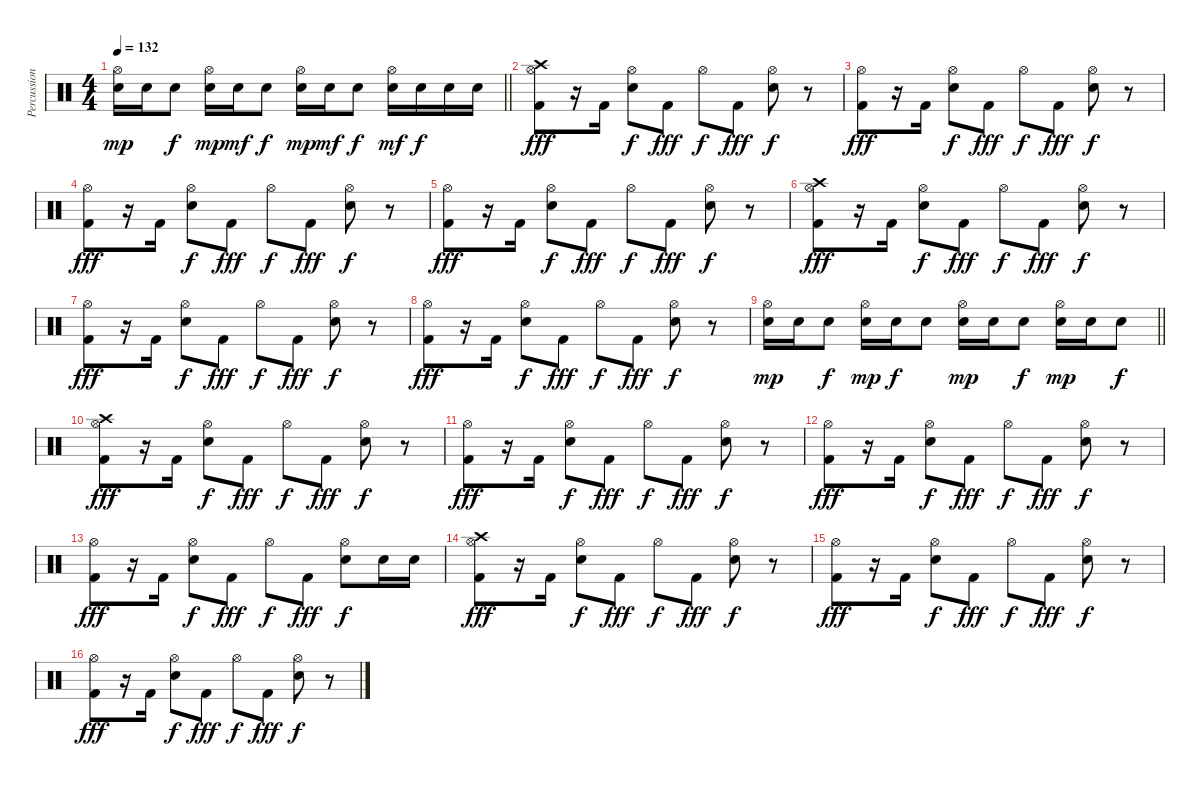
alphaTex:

\track ("Percussion" "Percussion") {instrument percussion}
\staff {score}
\articulation defaults
\ts (4 4)
\tempo 132
\clef neutral
\barLineRight lightlight
\ks c
("Electric Snare (hit)" "Hi-Hat (open)").16{dy mp} "Electric Snare (hit)".16 "Electric Snare (hit)".8{dy f} ("Electric Snare (hit)" "Hi-Hat (open)").16{dy mp} "Electric Snare (hit)".16{dy mf} "Electric Snare (hit)".8{dy f} ("Electric Snare (hit)" "Hi-Hat (open)").16{dy mp} "Electric Snare (hit)".16{dy mf} "Electric Snare (hit)".8{dy f} ("Electric Snare (hit)" "Hi-Hat (open)").16{dy mf} "Electric Snare (hit)".16{dy f} "Electric Snare (hit)".16 "Electric Snare (hit)".16 |
\section ("" "")
("Kick (hit) 2" "Hi-Hat (open)" "Crash high (hit)").8{dy fff} r.16 "Kick (hit) 2".16 ("Electric Snare (hit)" "Hi-Hat (open)").8{dy f} "Kick (hit) 2".8{dy fff} "Hi-Hat (open)".8{dy f} "Kick (hit) 2".8{dy fff} ("Electric Snare (hit)" "Hi-Hat (open)").8{dy f} r.8 |
("Kick (hit) 2" "Hi-Hat (open)").8{dy fff} r.16 "Kick (hit) 2".16 ("Electric Snare (hit)" "Hi-Hat (open)").8{dy f} "Kick (hit) 2".8{dy fff} "Hi-Hat (open)".8{dy f} "Kick (hit) 2".8{dy fff} ("Electric Snare (hit)" "Hi-Hat (open)").8{dy f} r.8 |
("Kick (hit) 2" "Hi-Hat (open)").8{dy fff} r.16 "Kick (hit) 2".16 ("Electric Snare (hit)" "Hi-Hat (open)").8{dy f} "Kick (hit) 2".8{dy fff} "Hi-Hat (open)".8{dy f} "Kick (hit) 2".8{dy fff} ("Electric Snare (hit)" "Hi-Hat (open)").8{dy f} r.8 |
("Kick (hit) 2" "Hi-Hat (open)").8{dy fff} r.16 "Kick (hit) 2".16 ("Electric Snare (hit)" "Hi-Hat (open)").8{dy f} "Kick (hit) 2".8{dy fff} "Hi-Hat (open)".8{dy f} "Kick (hit) 2".8{dy fff} ("Electric Snare (hit)" "Hi-Hat (open)").8{dy f} r.8 |
("Kick (hit) 2" "Hi-Hat (open)" "Crash high (hit)").8{dy fff} r.16 "Kick (hit) 2".16 ("Electric Snare (hit)" "Hi-Hat (open)").8{dy f} "Kick (hit) 2".8{dy fff} "Hi-Hat (open)".8{dy f} "Kick (hit) 2".8{dy fff} ("Electric Snare (hit)" "Hi-Hat (open)").8{dy f} r.8 |
("Kick (hit) 2" "Hi-Hat (open)").8{dy fff} r.16 "Kick (hit) 2".16 ("Electric Snare (hit)" "Hi-Hat (open)").8{dy f} "Kick (hit) 2".8{dy fff} "Hi-Hat (open)".8{dy f} "Kick (hit) 2".8{dy fff} ("Electric Snare (hit)" "Hi-Hat (open)").8{dy f} r.8 |
("Kick (hit) 2" "Hi-Hat (open)").8{dy fff} r.16 "Kick (hit) 2".16 ("Electric Snare (hit)" "Hi-Hat (open)").8{dy f} "Kick (hit) 2".8{dy fff} "Hi-Hat (open)".8{dy f} "Kick (hit) 2".8{dy fff} ("Electric Snare (hit)" "Hi-Hat (open)").8{dy f} r.8 |
\barLineRight lightlight
("Electric Snare (hit)" "Hi-Hat (open)").16{dy mp} "Electric Snare (hit)".16 "Electric Snare (hit)".8{dy f} ("Electric Snare (hit)" "Hi-Hat (open)").16{dy mp} "Electric Snare (hit)".16{dy f} "Electric Snare (hit)".8 ("Electric Snare (hit)" "Hi-Hat (open)").16{dy mp} "Electric Snare (hit)".16 "Electric Snare (hit)".8{dy f} ("Electric Snare (hit)" "Hi-Hat (open)").16{dy mp} "Electric Snare (hit)".16 "Electric Snare (hit)".8{dy f} |
\section ("" "")
("Kick (hit) 2" "Hi-Hat (open)" "Crash high (hit)").8{dy fff} r.16 "Kick (hit) 2".16 ("Electric Snare (hit)" "Hi-Hat (open)").8{dy f} "Kick (hit) 2".8{dy fff} "Hi-Hat (open)".8{dy f} "Kick (hit) 2".8{dy fff} ("Electric Snare (hit)" "Hi-Hat (open)").8{dy f} r.8 |
("Kick (hit) 2" "Hi-Hat (open)").8{dy fff} r.16 "Kick (hit) 2".16 ("Electric Snare (hit)" "Hi-Hat (open)").8{dy f} "Kick (hit) 2".8{dy fff} "Hi-Hat (open)".8{dy f} "Kick (hit) 2".8{dy fff} ("Electric Snare (hit)" "Hi-Hat (open)").8{dy f} r.8 |
("Kick (hit) 2" "Hi-Hat (open)").8{dy fff} r.16 "Kick (hit) 2".16 ("Electric Snare (hit)" "Hi-Hat (open)").8{dy f} "Kick (hit) 2".8{dy fff} "Hi-Hat (open)".8{dy f} "Kick (hit) 2".8{dy fff} ("Electric Snare (hit)" "Hi-Hat (open)").8{dy f} r.8 |
("Kick (hit) 2" "Hi-Hat (open)").8{dy fff} r.16 "Kick (hit) 2".16 ("Electric Snare (hit)" "Hi-Hat (open)").8{dy f} "Kick (hit) 2".8{dy fff} "Hi-Hat (open)".8{dy f} "Kick (hit) 2".8{dy fff} ("Electric Snare (hit)" "Hi-Hat (open)").8{dy f} "Electric Snare (hit)".16 "Electric Snare (hit)".16 |
("Kick (hit) 2" "Hi-Hat (open)" "Crash high (hit)").8{dy fff} r.16 "Kick (hit) 2".16 ("Electric Snare (hit)" "Hi-Hat (open)").8{dy f} "Kick (hit) 2".8{dy fff} "Hi-Hat (open)".8{dy f} "Kick (hit) 2".8{dy fff} ("Electric Snare (hit)" "Hi-Hat (open)").8{dy f} r.8 |
("Kick (hit) 2" "Hi-Hat (open)").8{dy fff} r.16 "Kick (hit) 2".16 ("Electric Snare (hit)" "Hi-Hat (open)").8{dy f} "Kick (hit) 2".8{dy fff} "Hi-Hat (open)".8{dy f} "Kick (hit) 2".8{dy fff} ("Electric Snare (hit)" "Hi-Hat (open)").8{dy f} r.8 |
("Kick (hit) 2" "Hi-Hat (open)").8{dy fff} r.16 "Kick (hit) 2".16 ("Electric Snare (hit)" "Hi-Hat (open)").8{dy f} "Kick (hit) 2".8{dy fff} "Hi-Hat (open)".8{dy f} "Kick (hit) 2".8{dy fff} ("Electric Snare (hit)" "Hi-Hat (open)").8{dy f} r.8
